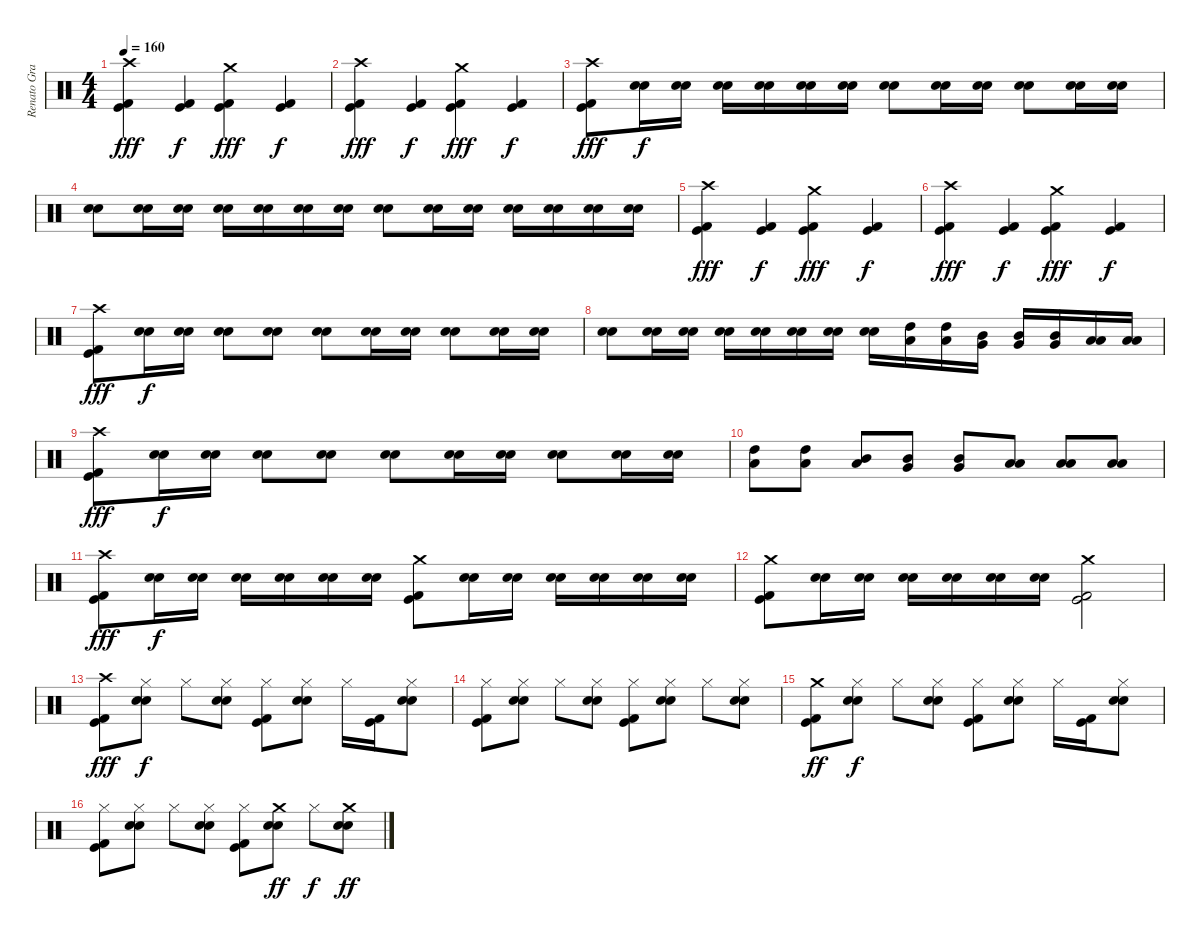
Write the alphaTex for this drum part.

\track ("Renato Graccia" "Renato Gra") {instrument percussion}
\staff {score}
\articulation defaults
\ts (4 4)
\tempo 160
\clef neutral
\ks c
("Crash high (hit)" "Kick (hit) 2" "Kick (hit)").4{dy fff} ("Kick (hit) 2" "Kick (hit)").4{dy f} ("Crash medium (hit)" "Kick (hit) 2" "Kick (hit)").4{dy fff} ("Kick (hit) 2" "Kick (hit)").4{dy f} |
("Crash high (hit)" "Kick (hit) 2" "Kick (hit)").4{dy fff} ("Kick (hit) 2" "Kick (hit)").4{dy f} ("Crash medium (hit)" "Kick (hit) 2" "Kick (hit)").4{dy fff} ("Kick (hit) 2" "Kick (hit)").4{dy f} |
("Crash high (hit)" "Kick (hit) 2" "Kick (hit)").8{dy fff} ("Electric Snare (hit)" "Snare (hit) 2").16{dy f} ("Electric Snare (hit)" "Snare (hit) 2").16 ("Electric Snare (hit)" "Snare (hit) 2").16 ("Electric Snare (hit)" "Snare (hit) 2").16 ("Electric Snare (hit)" "Snare (hit) 2").16 ("Electric Snare (hit)" "Snare (hit) 2").16 ("Electric Snare (hit)" "Snare (hit) 2").8 ("Electric Snare (hit)" "Snare (hit) 2").16 ("Electric Snare (hit)" "Snare (hit) 2").16 ("Electric Snare (hit)" "Snare (hit) 2").8 ("Electric Snare (hit)" "Snare (hit) 2").16 ("Electric Snare (hit)" "Snare (hit) 2").16 |
("Electric Snare (hit)" "Snare (hit) 2").8 ("Electric Snare (hit)" "Snare (hit) 2").16 ("Electric Snare (hit)" "Snare (hit) 2").16 ("Electric Snare (hit)" "Snare (hit) 2").16 ("Electric Snare (hit)" "Snare (hit) 2").16 ("Electric Snare (hit)" "Snare (hit) 2").16 ("Electric Snare (hit)" "Snare (hit) 2").16 ("Electric Snare (hit)" "Snare (hit) 2").8 ("Electric Snare (hit)" "Snare (hit) 2").16 ("Electric Snare (hit)" "Snare (hit) 2").16 ("Electric Snare (hit)" "Snare (hit) 2").16 ("Electric Snare (hit)" "Snare (hit) 2").16 ("Electric Snare (hit)" "Snare (hit) 2").16 ("Electric Snare (hit)" "Snare (hit) 2").16 |
("Crash high (hit)" "Kick (hit) 2" "Kick (hit)").4{dy fff} ("Kick (hit) 2" "Kick (hit)").4{dy f} ("Crash medium (hit)" "Kick (hit) 2" "Kick (hit)").4{dy fff} ("Kick (hit) 2" "Kick (hit)").4{dy f} |
("Crash high (hit)" "Kick (hit) 2" "Kick (hit)").4{dy fff} ("Kick (hit) 2" "Kick (hit)").4{dy f} ("Crash medium (hit)" "Kick (hit) 2" "Kick (hit)").4{dy fff} ("Kick (hit) 2" "Kick (hit)").4{dy f} |
("Crash high (hit)" "Kick (hit) 2" "Kick (hit)").8{dy fff} ("Electric Snare (hit)" "Snare (hit) 2").16{dy f} ("Electric Snare (hit)" "Snare (hit) 2").16 ("Electric Snare (hit)" "Snare (hit) 2").8 ("Electric Snare (hit)" "Snare (hit) 2").8 ("Electric Snare (hit)" "Snare (hit) 2").8 ("Electric Snare (hit)" "Snare (hit) 2").16 ("Electric Snare (hit)" "Snare (hit) 2").16 ("Electric Snare (hit)" "Snare (hit) 2").8 ("Electric Snare (hit)" "Snare (hit) 2").16 ("Electric Snare (hit)" "Snare (hit) 2").16 |
("Electric Snare (hit)" "Snare (hit) 2").8 ("Electric Snare (hit)" "Snare (hit) 2").16 ("Electric Snare (hit)" "Snare (hit) 2").16 ("Electric Snare (hit)" "Snare (hit) 2").16 ("Electric Snare (hit)" "Snare (hit) 2").16 ("Electric Snare (hit)" "Snare (hit) 2").16 ("Electric Snare (hit)" "Snare (hit) 2").16 ("Electric Snare (hit)" "Snare (hit) 2").16 ("High Tom (hit)" "Low Tom (hit)").16 ("High Tom (hit)" "Low Tom (hit)").16 ("Mid Tom (hit)" "Very Low Tom (hit)").16 ("Mid Tom (hit)" "Very Low Tom (hit)").16 ("Mid Tom (hit)" "Very Low Tom (hit)").16 ("Low Tom (hit)" "Low Floor Tom (hit)").16 ("Low Tom (hit)" "Low Floor Tom (hit)").16 |
("Crash high (hit)" "Kick (hit) 2" "Kick (hit)").8{dy fff} ("Electric Snare (hit)" "Snare (hit) 2").16{dy f} ("Electric Snare (hit)" "Snare (hit) 2").16 ("Electric Snare (hit)" "Snare (hit) 2").8 ("Electric Snare (hit)" "Snare (hit) 2").8 ("Electric Snare (hit)" "Snare (hit) 2").8 ("Electric Snare (hit)" "Snare (hit) 2").16 ("Electric Snare (hit)" "Snare (hit) 2").16 ("Electric Snare (hit)" "Snare (hit) 2").8 ("Electric Snare (hit)" "Snare (hit) 2").16 ("Electric Snare (hit)" "Snare (hit) 2").16 |
("High Tom (hit)" "Low Tom (hit)").8 ("High Tom (hit)" "Low Tom (hit)").8 ("Mid Tom (hit)" "Low Tom (hit)").8 ("Mid Tom (hit)" "Very Low Tom (hit)").8 ("Mid Tom (hit)" "Very Low Tom (hit)").8 ("Low Tom (hit)" "Low Floor Tom (hit)").8 ("Low Tom (hit)" "Low Floor Tom (hit)").8 ("Low Tom (hit)" "Low Floor Tom (hit)").8 |
("Crash high (hit)" "Kick (hit) 2" "Kick (hit)").8{dy fff} ("Electric Snare (hit)" "Snare (hit) 2").16{dy f} ("Electric Snare (hit)" "Snare (hit) 2").16 ("Electric Snare (hit)" "Snare (hit) 2").16 ("Electric Snare (hit)" "Snare (hit) 2").16 ("Electric Snare (hit)" "Snare (hit) 2").16 ("Electric Snare (hit)" "Snare (hit) 2").16 ("Crash medium (hit)" "Kick (hit) 2" "Kick (hit)").8 ("Electric Snare (hit)" "Snare (hit) 2").16 ("Electric Snare (hit)" "Snare (hit) 2").16 ("Electric Snare (hit)" "Snare (hit) 2").16 ("Electric Snare (hit)" "Snare (hit) 2").16 ("Electric Snare (hit)" "Snare (hit) 2").16 ("Electric Snare (hit)" "Snare (hit) 2").16 |
("Crash medium (hit)" "Kick (hit) 2" "Kick (hit)").8 ("Electric Snare (hit)" "Snare (hit) 2").16 ("Electric Snare (hit)" "Snare (hit) 2").16 ("Electric Snare (hit)" "Snare (hit) 2").16 ("Electric Snare (hit)" "Snare (hit) 2").16 ("Electric Snare (hit)" "Snare (hit) 2").16 ("Electric Snare (hit)" "Snare (hit) 2").16 ("Crash medium (hit)" "Kick (hit) 2" "Kick (hit)").2 |
("Crash high (hit)" "Kick (hit) 2" "Kick (hit)").8{dy fff} ("Hi-Hat (closed)" "Electric Snare (hit)" "Snare (hit) 2").8{dy f} "Hi-Hat (closed)".8 ("Hi-Hat (closed)" "Electric Snare (hit)" "Snare (hit) 2").8 ("Hi-Hat (closed)" "Kick (hit) 2" "Kick (hit)").8 ("Hi-Hat (closed)" "Electric Snare (hit)" "Snare (hit) 2").8 "Hi-Hat (closed)".16 ("Kick (hit) 2" "Kick (hit)").16 ("Hi-Hat (closed)" "Electric Snare (hit)" "Snare (hit) 2").8 |
("Hi-Hat (closed)" "Kick (hit) 2" "Kick (hit)").8 ("Hi-Hat (closed)" "Electric Snare (hit)" "Snare (hit) 2").8 "Hi-Hat (closed)".8 ("Hi-Hat (closed)" "Electric Snare (hit)" "Snare (hit) 2").8 ("Hi-Hat (closed)" "Kick (hit) 2" "Kick (hit)").8 ("Hi-Hat (closed)" "Electric Snare (hit)" "Snare (hit) 2").8 "Hi-Hat (closed)".8 ("Hi-Hat (closed)" "Electric Snare (hit)" "Snare (hit) 2").8 |
("Crash medium (hit)" "Kick (hit) 2" "Kick (hit)").8{dy ff} ("Hi-Hat (closed)" "Electric Snare (hit)" "Snare (hit) 2").8{dy f} "Hi-Hat (closed)".8 ("Hi-Hat (closed)" "Electric Snare (hit)" "Snare (hit) 2").8 ("Hi-Hat (closed)" "Kick (hit) 2" "Kick (hit)").8 ("Hi-Hat (closed)" "Electric Snare (hit)" "Snare (hit) 2").8 "Hi-Hat (closed)".16 ("Kick (hit) 2" "Kick (hit)").16 ("Hi-Hat (closed)" "Electric Snare (hit)" "Snare (hit) 2").8 |
("Hi-Hat (closed)" "Kick (hit) 2" "Kick (hit)").8 ("Hi-Hat (closed)" "Electric Snare (hit)" "Snare (hit) 2").8 "Hi-Hat (closed)".8 ("Hi-Hat (closed)" "Electric Snare (hit)" "Snare (hit) 2").8 ("Hi-Hat (closed)" "Kick (hit) 2" "Kick (hit)").8 ("Crash medium (hit)" "Electric Snare (hit)" "Snare (hit) 2").8{dy ff} "Hi-Hat (closed)".8{dy f} ("Crash medium (hit)" "Electric Snare (hit)" "Snare (hit) 2").8{dy ff}
